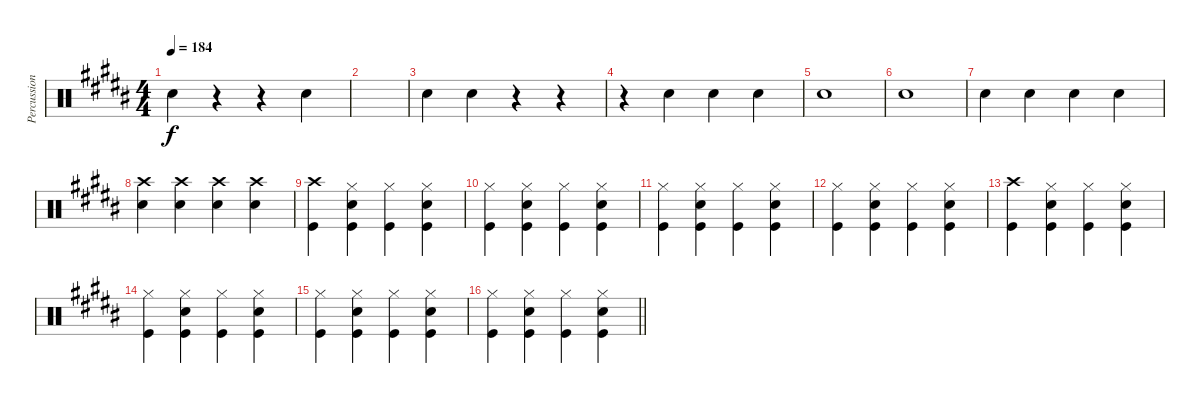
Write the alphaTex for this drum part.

\track ("Percussion" "Percussion") {instrument percussion}
\staff {score}
\articulation defaults
\ts (4 4)
\tempo 184
\clef neutral
\ks b "Snare (hit) 2".4{dy f}
r.4 r.4 "Snare (hit) 2".4 |
|
"Snare (hit) 2".4 "Snare (hit) 2".4 r.4 r.4 |
r.4 "Snare (hit) 2".4 "Snare (hit) 2".4 "Snare (hit) 2".4 |
"Snare (hit) 2".1 |
"Snare (hit) 2".1 |
"Snare (hit) 2".4 "Snare (hit) 2".4 "Snare (hit) 2".4 "Snare (hit) 2".4 |
("Snare (hit) 2" "Crash high (hit)").4 ("Snare (hit) 2" "Crash high (hit)").4 ("Snare (hit) 2" "Crash high (hit)").4 ("Snare (hit) 2" "Crash high (hit)").4 |
("Crash high (hit)" "Kick (hit)").4 ("Snare (hit) 2" "Kick (hit)" "Hi-Hat (closed)").4 ("Kick (hit)" "Hi-Hat (closed)").4 ("Snare (hit) 2" "Kick (hit)" "Hi-Hat (closed)").4 |
("Hi-Hat (closed)" "Kick (hit)").4 ("Snare (hit) 2" "Kick (hit)" "Hi-Hat (closed)").4 ("Hi-Hat (closed)" "Kick (hit)").4 ("Snare (hit) 2" "Kick (hit)" "Hi-Hat (closed)").4 |
("Hi-Hat (closed)" "Kick (hit)").4 ("Kick (hit)" "Hi-Hat (closed)" "Snare (hit) 2").4 ("Hi-Hat (closed)" "Kick (hit)").4 ("Hi-Hat (closed)" "Kick (hit)" "Snare (hit) 2").4 |
("Hi-Hat (closed)" "Kick (hit)").4 ("Hi-Hat (closed)" "Kick (hit)" "Snare (hit) 2").4 ("Hi-Hat (closed)" "Kick (hit)").4 ("Hi-Hat (closed)" "Kick (hit)" "Snare (hit) 2").4 |
("Crash high (hit)" "Kick (hit)").4 ("Snare (hit) 2" "Kick (hit)" "Hi-Hat (closed)").4 ("Kick (hit)" "Hi-Hat (closed)").4 ("Snare (hit) 2" "Kick (hit)" "Hi-Hat (closed)").4 |
("Hi-Hat (closed)" "Kick (hit)").4 ("Snare (hit) 2" "Kick (hit)" "Hi-Hat (closed)").4 ("Hi-Hat (closed)" "Kick (hit)").4 ("Snare (hit) 2" "Kick (hit)" "Hi-Hat (closed)").4 |
("Hi-Hat (closed)" "Kick (hit)").4 ("Kick (hit)" "Hi-Hat (closed)" "Snare (hit) 2").4 ("Hi-Hat (closed)" "Kick (hit)").4 ("Hi-Hat (closed)" "Kick (hit)" "Snare (hit) 2").4 |
\barLineRight lightlight
("Hi-Hat (closed)" "Kick (hit)").4 ("Hi-Hat (closed)" "Kick (hit)" "Snare (hit) 2").4 ("Hi-Hat (closed)" "Kick (hit)").4 ("Hi-Hat (closed)" "Kick (hit)" "Snare (hit) 2").4
